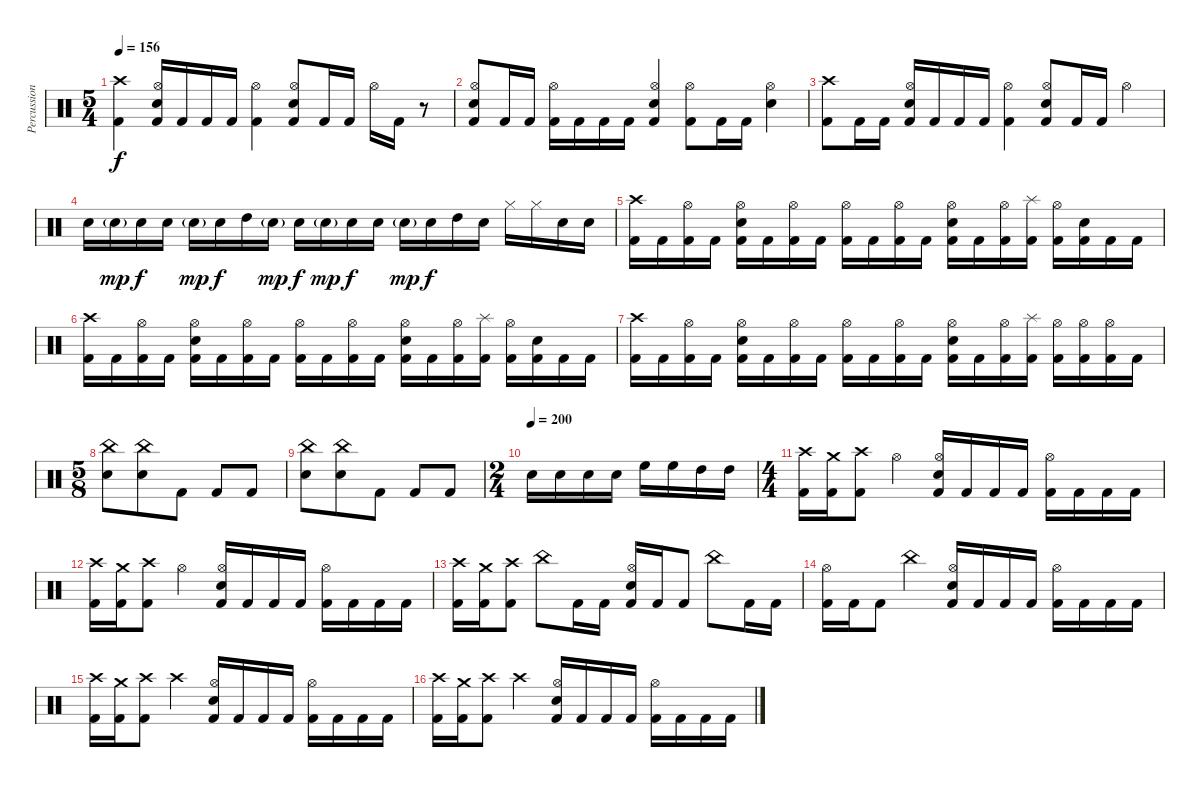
\track ("Percussion" "Percussion") {instrument percussion}
\staff {score}
\articulation defaults
\ts (5 4)
\tempo 156
\clef neutral
\ks c
("Crash high (hit)" "Kick (hit) 2").4{dy f} ("Hi-Hat (open)" "Electric Snare (hit)" "Kick (hit) 2").16 "Kick (hit) 2".16 "Kick (hit) 2".16 "Kick (hit) 2".16 ("Hi-Hat (open)" "Kick (hit) 2").4 ("Hi-Hat (open)" "Electric Snare (hit)" "Kick (hit) 2").8 "Kick (hit) 2".16 "Kick (hit) 2".16 "Hi-Hat (open)".16 "Kick (hit) 2".16 r.8 |
("Hi-Hat (open)" "Electric Snare (hit)" "Kick (hit) 2").8 "Kick (hit) 2".16 "Kick (hit) 2".16 ("Hi-Hat (open)" "Kick (hit) 2").16 "Kick (hit) 2".16 "Kick (hit) 2".16 "Kick (hit) 2".16 ("Hi-Hat (open)" "Electric Snare (hit)" "Kick (hit) 2").4 ("Hi-Hat (open)" "Kick (hit) 2").8 "Kick (hit) 2".16 "Kick (hit) 2".16 ("Hi-Hat (open)" "Electric Snare (hit)").4 |
("Crash high (hit)" "Kick (hit) 2").8 "Kick (hit) 2".16 "Kick (hit) 2".16 ("Hi-Hat (open)" "Electric Snare (hit)" "Kick (hit) 2").16 "Kick (hit) 2".16 "Kick (hit) 2".16 "Kick (hit) 2".16 ("Hi-Hat (open)" "Kick (hit) 2").4 ("Hi-Hat (open)" "Electric Snare (hit)" "Kick (hit) 2").8 "Kick (hit) 2".16 "Kick (hit) 2".16 "Hi-Hat (open)".4 |
"Electric Snare (hit)".16 "Electric Snare (hit)"{g}.16{dy mp} "Electric Snare (hit)".16{dy f} "Electric Snare (hit)".16 "Electric Snare (hit)"{g}.16{dy mp} "Electric Snare (hit)".16{dy f} "High Tom (hit)".16 "Electric Snare (hit)"{g}.16{dy mp} "Electric Snare (hit)".16{dy f} "Electric Snare (hit)"{g}.16{dy mp} "Electric Snare (hit)".16{dy f} "Electric Snare (hit)".16 "Electric Snare (hit)"{g}.16{dy mp} "Electric Snare (hit)".16{dy f} "High Tom (hit)".16 "Electric Snare (hit)".16 "Hi-Hat (closed)".16 "Hi-Hat (closed)".16 "Electric Snare (hit)".16 "Electric Snare (hit)".16 |
("Crash high (hit)" "Kick (hit) 2").16 "Kick (hit) 2".16 ("Hi-Hat (open)" "Kick (hit) 2").16 "Kick (hit) 2".16 ("Hi-Hat (open)" "Electric Snare (hit)" "Kick (hit) 2").16 "Kick (hit) 2".16 ("Hi-Hat (open)" "Kick (hit) 2").16 "Kick (hit) 2".16 ("Hi-Hat (open)" "Kick (hit) 2").16 "Kick (hit) 2".16 ("Hi-Hat (open)" "Kick (hit) 2").16 "Kick (hit) 2".16 ("Hi-Hat (open)" "Electric Snare (hit)" "Kick (hit) 2").16 "Kick (hit) 2".16 ("Hi-Hat (open)" "Kick (hit) 2").16 ("Splash (hit)" "Kick (hit) 2").16 ("Hi-Hat (open)" "Kick (hit) 2").16 ("Electric Snare (hit)" "Kick (hit) 2").16 "Kick (hit) 2".16 "Kick (hit) 2".16 |
("Crash high (hit)" "Kick (hit) 2").16 "Kick (hit) 2".16 ("Hi-Hat (open)" "Kick (hit) 2").16 "Kick (hit) 2".16 ("Hi-Hat (open)" "Electric Snare (hit)" "Kick (hit) 2").16 "Kick (hit) 2".16 ("Hi-Hat (open)" "Kick (hit) 2").16 "Kick (hit) 2".16 ("Hi-Hat (open)" "Kick (hit) 2").16 "Kick (hit) 2".16 ("Hi-Hat (open)" "Kick (hit) 2").16 "Kick (hit) 2".16 ("Hi-Hat (open)" "Electric Snare (hit)" "Kick (hit) 2").16 "Kick (hit) 2".16 ("Hi-Hat (open)" "Kick (hit) 2").16 ("Splash (hit)" "Kick (hit) 2").16 ("Hi-Hat (open)" "Kick (hit) 2").16 ("Electric Snare (hit)" "Kick (hit) 2").16 "Kick (hit) 2".16 "Kick (hit) 2".16 |
("Crash high (hit)" "Kick (hit) 2").16 "Kick (hit) 2".16 ("Hi-Hat (open)" "Kick (hit) 2").16 "Kick (hit) 2".16 ("Hi-Hat (open)" "Electric Snare (hit)" "Kick (hit) 2").16 "Kick (hit) 2".16 ("Hi-Hat (open)" "Kick (hit) 2").16 "Kick (hit) 2".16 ("Hi-Hat (open)" "Kick (hit) 2").16 "Kick (hit) 2".16 ("Hi-Hat (open)" "Kick (hit) 2").16 "Kick (hit) 2".16 ("Hi-Hat (open)" "Electric Snare (hit)" "Kick (hit) 2").16 "Kick (hit) 2".16 ("Hi-Hat (open)" "Kick (hit) 2").16 ("Splash (hit)" "Kick (hit) 2").16 ("Hi-Hat (open)" "Kick (hit) 2").16 ("Hi-Hat (open)" "Kick (hit) 2").16 ("Hi-Hat (open)" "Kick (hit) 2").16 "Kick (hit) 2".16 |
\ts (5 8)
("China (hit)" "Electric Snare (hit)").8 ("China (hit)" "Electric Snare (hit)").8 "Kick (hit) 2".8 "Kick (hit) 2".8 "Kick (hit) 2".8 |
("China (hit)" "Electric Snare (hit)").8 ("China (hit)" "Electric Snare (hit)").8 "Kick (hit) 2".8 "Kick (hit) 2".8 "Kick (hit) 2".8 |
\ts (2 4)
\tempo (200)
"Electric Snare (hit)".16 "Electric Snare (hit)".16 "Electric Snare (hit)".16 "Electric Snare (hit)".16 "High Floor Tom (hit)".16 "High Floor Tom (hit)".16 "High Tom (hit)".16 "High Tom (hit)".16 |
\ts (4 4)
("Crash high (hit)" "Kick (hit) 2").16 ("Crash medium (hit)" "Kick (hit) 2").16 ("Crash high (hit)" "Kick (hit) 2").8 "Hi-Hat (open)".4 ("Hi-Hat (open)" "Electric Snare (hit)" "Kick (hit) 2").16 "Kick (hit) 2".16 "Kick (hit) 2".16 "Kick (hit) 2".16 ("Hi-Hat (open)" "Kick (hit) 2").16 "Kick (hit) 2".16 "Kick (hit) 2".16 "Kick (hit) 2".16 |
("Crash high (hit)" "Kick (hit) 2").16 ("Crash medium (hit)" "Kick (hit) 2").16 ("Crash high (hit)" "Kick (hit) 2").8 "Hi-Hat (open)".4 ("Hi-Hat (open)" "Electric Snare (hit)" "Kick (hit) 2").16 "Kick (hit) 2".16 "Kick (hit) 2".16 "Kick (hit) 2".16 ("Hi-Hat (open)" "Kick (hit) 2").16 "Kick (hit) 2".16 "Kick (hit) 2".16 "Kick (hit) 2".16 |
("Crash high (hit)" "Kick (hit) 2").16 ("Crash medium (hit)" "Kick (hit) 2").16 ("Crash high (hit)" "Kick (hit) 2").8 "China (hit)".8 "Kick (hit) 2".16 "Kick (hit) 2".16 ("Hi-Hat (open)" "Electric Snare (hit)" "Kick (hit) 2").16 "Kick (hit) 2".16 "Kick (hit) 2".8 "China (hit)".8 "Kick (hit) 2".16 "Kick (hit) 2".16 |
("Hi-Hat (open)" "Kick (hit) 2").16 "Kick (hit) 2".16 "Kick (hit) 2".8 "China (hit)".4 ("Hi-Hat (open)" "Electric Snare (hit)" "Kick (hit) 2").16 "Kick (hit) 2".16 "Kick (hit) 2".16 "Kick (hit) 2".16 ("Hi-Hat (open)" "Kick (hit) 2").16 "Kick (hit) 2".16 "Kick (hit) 2".16 "Kick (hit) 2".16 |
("Crash high (hit)" "Kick (hit) 2").16 ("Crash medium (hit)" "Kick (hit) 2").16 ("Crash high (hit)" "Kick (hit) 2").8 "Crash high (hit)".4 ("Hi-Hat (open)" "Electric Snare (hit)" "Kick (hit) 2").16 "Kick (hit) 2".16 "Kick (hit) 2".16 "Kick (hit) 2".16 ("Hi-Hat (open)" "Kick (hit) 2").16 "Kick (hit) 2".16 "Kick (hit) 2".16 "Kick (hit) 2".16 |
("Crash high (hit)" "Kick (hit) 2").16 ("Crash medium (hit)" "Kick (hit) 2").16 ("Crash high (hit)" "Kick (hit) 2").8 "Crash high (hit)".4 ("Hi-Hat (open)" "Electric Snare (hit)" "Kick (hit) 2").16 "Kick (hit) 2".16 "Kick (hit) 2".16 "Kick (hit) 2".16 ("Hi-Hat (open)" "Kick (hit) 2").16 "Kick (hit) 2".16 "Kick (hit) 2".16 "Kick (hit) 2".16
